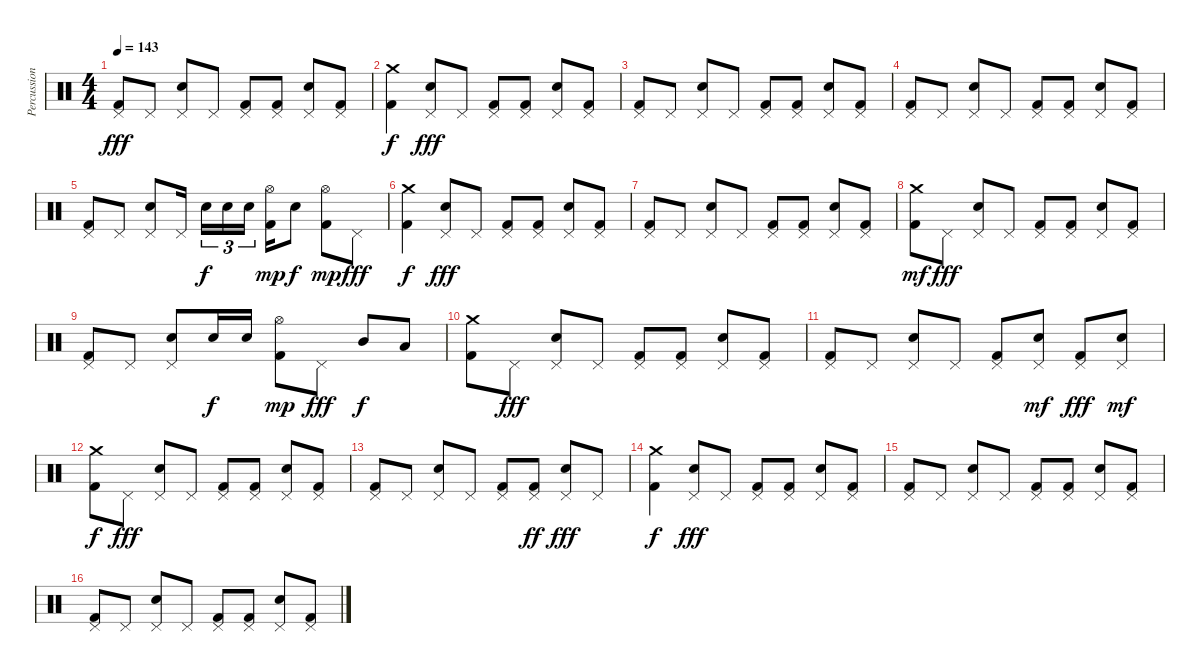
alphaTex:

\track ("Percussion" "Percussion") {instrument percussion}
\staff {score}
\articulation defaults
\ts (4 4)
\tempo 143
\clef neutral
\ks c
("Pedal Hi-Hat (hit)" "Kick (hit) 2").8{dy fff} "Pedal Hi-Hat (hit)".8 ("Pedal Hi-Hat (hit)" "Snare (hit) 2").8 "Pedal Hi-Hat (hit)".8 ("Pedal Hi-Hat (hit)" "Kick (hit) 2").8 ("Pedal Hi-Hat (hit)" "Kick (hit) 2").8 ("Pedal Hi-Hat (hit)" "Snare (hit) 2").8 ("Pedal Hi-Hat (hit)" "Kick (hit) 2").8 |
("Crash medium (hit)" "Kick (hit) 2").4{dy f} ("Pedal Hi-Hat (hit)" "Snare (hit) 2").8{dy fff} "Pedal Hi-Hat (hit)".8 ("Pedal Hi-Hat (hit)" "Kick (hit) 2").8 ("Pedal Hi-Hat (hit)" "Kick (hit) 2").8 ("Pedal Hi-Hat (hit)" "Snare (hit) 2").8 ("Pedal Hi-Hat (hit)" "Kick (hit) 2").8 |
("Pedal Hi-Hat (hit)" "Kick (hit) 2").8 "Pedal Hi-Hat (hit)".8 ("Pedal Hi-Hat (hit)" "Snare (hit) 2").8 "Pedal Hi-Hat (hit)".8 ("Pedal Hi-Hat (hit)" "Kick (hit) 2").8 ("Pedal Hi-Hat (hit)" "Kick (hit) 2").8 ("Pedal Hi-Hat (hit)" "Snare (hit) 2").8 ("Pedal Hi-Hat (hit)" "Kick (hit) 2").8 |
("Pedal Hi-Hat (hit)" "Kick (hit) 2").8 "Pedal Hi-Hat (hit)".8 ("Pedal Hi-Hat (hit)" "Snare (hit) 2").8 "Pedal Hi-Hat (hit)".8 ("Pedal Hi-Hat (hit)" "Kick (hit) 2").8 ("Pedal Hi-Hat (hit)" "Kick (hit) 2").8 ("Pedal Hi-Hat (hit)" "Snare (hit) 2").8 ("Pedal Hi-Hat (hit)" "Kick (hit) 2").8 |
("Pedal Hi-Hat (hit)" "Kick (hit) 2").8 "Pedal Hi-Hat (hit)".8 ("Pedal Hi-Hat (hit)" "Snare (hit) 2").8 "Pedal Hi-Hat (hit)".16 "Snare (hit) 2".16{tu (3 2) dy f} "Snare (hit) 2".16{tu (3 2)} "Snare (hit) 2".16{tu (3 2)} ("Hi-Hat (open)" "Kick (hit) 2").16{dy mp} "Snare (hit) 2".8{dy f} ("Hi-Hat (open)" "Kick (hit) 2").8{dy mp} "Pedal Hi-Hat (hit)".8{dy fff} |
("Crash medium (hit)" "Kick (hit) 2").4{dy f} ("Pedal Hi-Hat (hit)" "Snare (hit) 2").8{dy fff} "Pedal Hi-Hat (hit)".8 ("Pedal Hi-Hat (hit)" "Kick (hit) 2").8 ("Pedal Hi-Hat (hit)" "Kick (hit) 2").8 ("Pedal Hi-Hat (hit)" "Snare (hit) 2").8 ("Pedal Hi-Hat (hit)" "Kick (hit) 2").8 |
("Pedal Hi-Hat (hit)" "Kick (hit) 2").8 "Pedal Hi-Hat (hit)".8 ("Pedal Hi-Hat (hit)" "Snare (hit) 2").8 "Pedal Hi-Hat (hit)".8 ("Pedal Hi-Hat (hit)" "Kick (hit) 2").8 ("Pedal Hi-Hat (hit)" "Kick (hit) 2").8 ("Pedal Hi-Hat (hit)" "Snare (hit) 2").8 ("Pedal Hi-Hat (hit)" "Kick (hit) 2").8 |
("Crash medium (hit)" "Kick (hit) 2").8{dy mf} "Pedal Hi-Hat (hit)".8{dy fff} ("Pedal Hi-Hat (hit)" "Snare (hit) 2").8 "Pedal Hi-Hat (hit)".8 ("Pedal Hi-Hat (hit)" "Kick (hit) 2").8 ("Pedal Hi-Hat (hit)" "Kick (hit) 2").8 ("Pedal Hi-Hat (hit)" "Snare (hit) 2").8 ("Pedal Hi-Hat (hit)" "Kick (hit) 2").8 |
("Pedal Hi-Hat (hit)" "Kick (hit) 2").8 "Pedal Hi-Hat (hit)".8 ("Pedal Hi-Hat (hit)" "Snare (hit) 2").8 "Snare (hit) 2".16{dy f} "Snare (hit) 2".16 ("Hi-Hat (open)" "Kick (hit) 2").8{dy mp} "Pedal Hi-Hat (hit)".8{dy fff} "Mid Tom (hit)".8{dy f} "Low Tom (hit)".8 |
("Crash medium (hit)" "Kick (hit) 2").8 "Pedal Hi-Hat (hit)".8{dy fff} ("Pedal Hi-Hat (hit)" "Snare (hit) 2").8 "Pedal Hi-Hat (hit)".8 ("Pedal Hi-Hat (hit)" "Kick (hit) 2").8 ("Pedal Hi-Hat (hit)" "Kick (hit) 2").8 ("Pedal Hi-Hat (hit)" "Snare (hit) 2").8 ("Pedal Hi-Hat (hit)" "Kick (hit) 2").8 |
("Pedal Hi-Hat (hit)" "Kick (hit) 2").8 "Pedal Hi-Hat (hit)".8 ("Pedal Hi-Hat (hit)" "Snare (hit) 2").8 "Pedal Hi-Hat (hit)".8 ("Pedal Hi-Hat (hit)" "Kick (hit) 2").8 ("Pedal Hi-Hat (hit)" "Snare (hit) 2").8{dy mf} ("Pedal Hi-Hat (hit)" "Kick (hit) 2").8{dy fff} ("Pedal Hi-Hat (hit)" "Snare (hit) 2").8{dy mf} |
("Crash medium (hit)" "Kick (hit) 2").8{dy f} "Pedal Hi-Hat (hit)".8{dy fff} ("Pedal Hi-Hat (hit)" "Snare (hit) 2").8 "Pedal Hi-Hat (hit)".8 ("Pedal Hi-Hat (hit)" "Kick (hit) 2").8 ("Pedal Hi-Hat (hit)" "Kick (hit) 2").8 ("Pedal Hi-Hat (hit)" "Snare (hit) 2").8 ("Pedal Hi-Hat (hit)" "Kick (hit) 2").8 |
("Pedal Hi-Hat (hit)" "Kick (hit) 2").8 "Pedal Hi-Hat (hit)".8 ("Pedal Hi-Hat (hit)" "Snare (hit) 2").8 "Pedal Hi-Hat (hit)".8 ("Pedal Hi-Hat (hit)" "Kick (hit) 2").8 ("Pedal Hi-Hat (hit)" "Kick (hit) 2").8{dy ff} ("Pedal Hi-Hat (hit)" "Snare (hit) 2").8{dy fff} "Pedal Hi-Hat (hit)".8 |
("Crash medium (hit)" "Kick (hit) 2").4{dy f} ("Pedal Hi-Hat (hit)" "Snare (hit) 2").8{dy fff} "Pedal Hi-Hat (hit)".8 ("Pedal Hi-Hat (hit)" "Kick (hit) 2").8 ("Pedal Hi-Hat (hit)" "Kick (hit) 2").8 ("Pedal Hi-Hat (hit)" "Snare (hit) 2").8 ("Pedal Hi-Hat (hit)" "Kick (hit) 2").8 |
("Pedal Hi-Hat (hit)" "Kick (hit) 2").8 "Pedal Hi-Hat (hit)".8 ("Pedal Hi-Hat (hit)" "Snare (hit) 2").8 "Pedal Hi-Hat (hit)".8 ("Pedal Hi-Hat (hit)" "Kick (hit) 2").8 ("Pedal Hi-Hat (hit)" "Kick (hit) 2").8 ("Pedal Hi-Hat (hit)" "Snare (hit) 2").8 ("Pedal Hi-Hat (hit)" "Kick (hit) 2").8 |
("Pedal Hi-Hat (hit)" "Kick (hit) 2").8 "Pedal Hi-Hat (hit)".8 ("Pedal Hi-Hat (hit)" "Snare (hit) 2").8 "Pedal Hi-Hat (hit)".8 ("Pedal Hi-Hat (hit)" "Kick (hit) 2").8 ("Pedal Hi-Hat (hit)" "Kick (hit) 2").8 ("Pedal Hi-Hat (hit)" "Snare (hit) 2").8 ("Pedal Hi-Hat (hit)" "Kick (hit) 2").8
